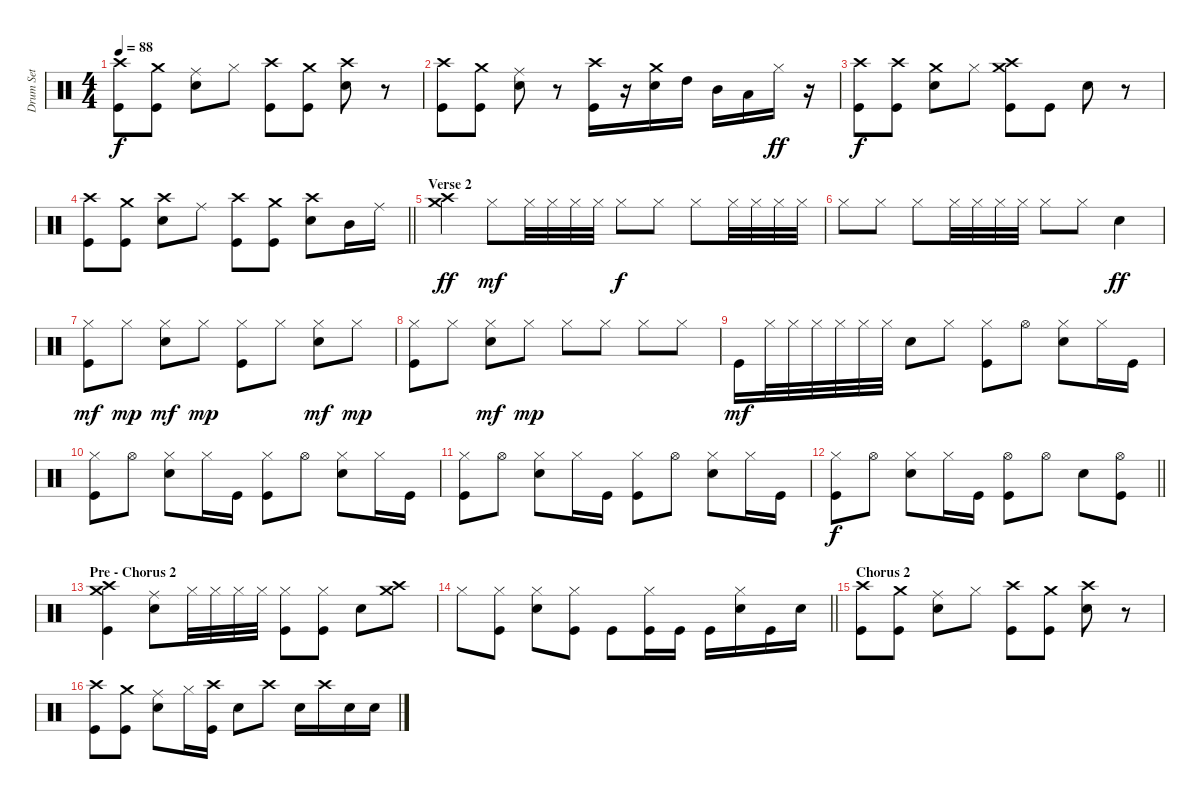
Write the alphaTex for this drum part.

\track ("Drum Set" "Drum Set") {instrument percussion}
\staff {score}
\articulation defaults
\ts (4 4)
\tempo 88
\clef neutral
\ks c
("Crash high (hit)" "Kick (hit)").8{dy f} ("Crash medium (hit)" "Kick (hit)").8 ("Ride (middle)" "Snare (hit) 2").8 "Hi-Hat (closed)".8 ("Crash high (hit)" "Kick (hit)").8 ("Crash medium (hit)" "Kick (hit)").8 ("Crash high (hit)" "Snare (hit) 2").8 r.8 |
("Crash high (hit)" "Kick (hit)").8 ("Crash medium (hit)" "Kick (hit)").8 ("Ride (middle)" "Snare (hit) 2").8 r.8 ("Crash high (hit)" "Kick (hit)").16 r.16 ("Crash medium (hit)" "Snare (hit) 2").16 "High Tom (hit)".16 "Mid Tom (hit)".16 "Low Tom (hit)".16 "Hi-Hat (closed)".16{dy ff} r.16 |
("Crash high (hit)" "Kick (hit)").8{dy f} ("Crash high (hit)" "Kick (hit)").8 ("Crash medium (hit)" "Snare (hit) 2").8 "Hi-Hat (closed)".8 ("Crash high (hit)" "Crash medium (hit)" "Kick (hit)").8 "Kick (hit)".8 "Snare (hit) 2".8 r.8 |
\barLineRight lightlight
("Crash high (hit)" "Kick (hit)").8 ("Crash medium (hit)" "Kick (hit)").8 ("Crash high (hit)" "Snare (hit) 2").8 "Ride (middle)".8 ("Crash high (hit)" "Kick (hit)").8 ("Crash medium (hit)" "Kick (hit)").8 ("Crash high (hit)" "Snare (hit) 2").8 "Mid Tom (hit)".16 "Ride (middle)".16 |
\section ("" "Verse 2")
("Crash high (hit)" "Crash medium (hit)").4{dy ff} "Hi-Hat (closed)".8{dy mf} "Hi-Hat (closed)".32 "Hi-Hat (closed)".32 "Hi-Hat (closed)".32 "Hi-Hat (closed)".32 "Hi-Hat (closed)".8{dy f} "Hi-Hat (closed)".8 "Hi-Hat (closed)".8 "Hi-Hat (closed)".32 "Hi-Hat (closed)".32 "Hi-Hat (closed)".32 "Hi-Hat (closed)".32 |
"Hi-Hat (closed)".8 "Hi-Hat (closed)".8 "Hi-Hat (closed)".8 "Hi-Hat (closed)".32 "Hi-Hat (closed)".32 "Hi-Hat (closed)".32 "Hi-Hat (closed)".32 "Hi-Hat (closed)".8 "Hi-Hat (closed)".8 "Snare (hit) 2".4{dy ff} |
("Hi-Hat (closed)" "Kick (hit)").8{dy mf} "Hi-Hat (closed)".8{dy mp} ("Hi-Hat (closed)" "Snare (hit) 2").8{dy mf} "Hi-Hat (closed)".8{dy mp} ("Hi-Hat (closed)" "Kick (hit)").8 "Hi-Hat (closed)".8 ("Hi-Hat (closed)" "Snare (hit) 2").8{dy mf} "Hi-Hat (closed)".8{dy mp} |
("Hi-Hat (closed)" "Kick (hit)").8 "Hi-Hat (closed)".8 ("Hi-Hat (closed)" "Snare (hit) 2").8{dy mf} "Hi-Hat (closed)".8{dy mp} "Hi-Hat (closed)".8 "Hi-Hat (closed)".8 "Hi-Hat (closed)".8 "Hi-Hat (closed)".8 |
"Kick (hit)".16{dy mf} "Hi-Hat (closed)".32 "Hi-Hat (closed)".32 "Hi-Hat (closed)".32 "Hi-Hat (closed)".32 "Hi-Hat (closed)".32 "Hi-Hat (closed)".32 "Snare (hit) 2".8 "Hi-Hat (closed)".8 ("Hi-Hat (closed)" "Kick (hit)").8 "Hi-Hat (open)".8 ("Hi-Hat (closed)" "Snare (hit) 2").8 "Hi-Hat (closed)".16 "Kick (hit)".16 |
("Hi-Hat (closed)" "Kick (hit)").8 "Hi-Hat (open)".8 ("Hi-Hat (closed)" "Snare (hit) 2").8 "Hi-Hat (closed)".16 "Kick (hit)".16 ("Hi-Hat (closed)" "Kick (hit)").8 "Hi-Hat (open)".8 ("Hi-Hat (closed)" "Snare (hit) 2").8 "Hi-Hat (closed)".16 "Kick (hit)".16 |
("Hi-Hat (closed)" "Kick (hit)").8 "Hi-Hat (open)".8 ("Hi-Hat (closed)" "Snare (hit) 2").8 "Hi-Hat (closed)".16 "Kick (hit)".16 ("Hi-Hat (closed)" "Kick (hit)").8 "Hi-Hat (open)".8 ("Hi-Hat (closed)" "Snare (hit) 2").8 "Hi-Hat (closed)".16 "Kick (hit)".16 |
\barLineRight lightlight
("Hi-Hat (closed)" "Kick (hit)").8{dy f} "Hi-Hat (open)".8 ("Hi-Hat (closed)" "Snare (hit) 2").8 "Hi-Hat (closed)".16 "Kick (hit)".16 ("Hi-Hat (open)" "Kick (hit)").8 "Hi-Hat (open)".8 "Snare (hit) 2".8 ("Hi-Hat (open)" "Kick (hit)").8 |
\section ("" "Pre - Chorus 2")
("Crash high (hit)" "Crash medium (hit)" "Kick (hit)").4 ("Ride (middle)" "Snare (hit) 2").8 "Hi-Hat (closed)".32 "Hi-Hat (closed)".32 "Hi-Hat (closed)".32 "Hi-Hat (closed)".32 ("Hi-Hat (closed)" "Kick (hit)").8 ("Hi-Hat (closed)" "Kick (hit)").8 "Snare (hit) 2".8 ("Crash high (hit)" "Crash medium (hit)").8 |
\barLineRight lightlight "Hi-Hat (closed)".8
("Hi-Hat (closed)" "Kick (hit)").8 ("Hi-Hat (closed)" "Snare (hit) 2").8 ("Hi-Hat (closed)" "Kick (hit)").8 "Kick (hit)".8 ("Hi-Hat (closed)" "Kick (hit)").16 "Kick (hit)".16 "Kick (hit)".16 ("Snare (hit) 2" "Hi-Hat (closed)").16 "Kick (hit)".16 "Snare (hit) 2".16 |
\section ("" "Chorus 2")
("Crash high (hit)" "Kick (hit)").8 ("Crash medium (hit)" "Kick (hit)").8 ("Ride (middle)" "Snare (hit) 2").8 "Hi-Hat (closed)".8 ("Crash high (hit)" "Kick (hit)").8 ("Crash medium (hit)" "Kick (hit)").8 ("Crash high (hit)" "Snare (hit) 2").8 r.8 |
("Crash high (hit)" "Kick (hit)").8 ("Crash medium (hit)" "Kick (hit)").8 ("Ride (middle)" "Snare (hit) 2").8 "Hi-Hat (closed)".16 ("Crash high (hit)" "Kick (hit)").16 "Snare (hit) 2".8 "Crash high (hit)".8 "Snare (hit) 2".16 "Crash high (hit)".16 "Snare (hit) 2".16 "Snare (hit) 2".16
